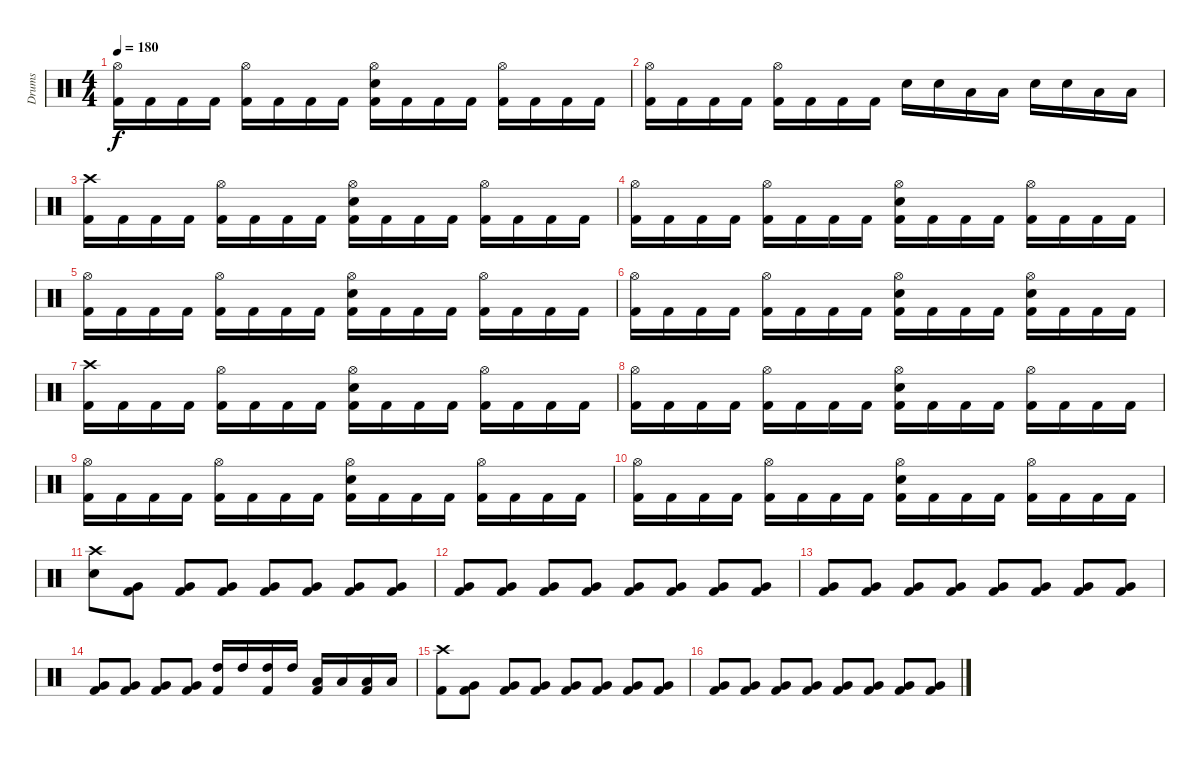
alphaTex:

\track ("Drums" "Drums") {instrument percussion}
\staff {score}
\articulation defaults
\ts (4 4)
\tempo 180
\clef neutral
\ks c
("Hi-Hat (open)" "Kick (hit) 2").16{dy f} "Kick (hit) 2".16 "Kick (hit) 2".16 "Kick (hit) 2".16 ("Hi-Hat (open)" "Kick (hit) 2").16 "Kick (hit) 2".16 "Kick (hit) 2".16 "Kick (hit) 2".16 ("Hi-Hat (open)" "Electric Snare (hit)" "Kick (hit) 2").16 "Kick (hit) 2".16 "Kick (hit) 2".16 "Kick (hit) 2".16 ("Hi-Hat (open)" "Kick (hit) 2").16 "Kick (hit) 2".16 "Kick (hit) 2".16 "Kick (hit) 2".16 |
("Hi-Hat (open)" "Kick (hit) 2").16 "Kick (hit) 2".16 "Kick (hit) 2".16 "Kick (hit) 2".16 ("Hi-Hat (open)" "Kick (hit) 2").16 "Kick (hit) 2".16 "Kick (hit) 2".16 "Kick (hit) 2".16 "Electric Snare (hit)".16 "Electric Snare (hit)".16 "Low Tom (hit)".16 "Low Tom (hit)".16 "Electric Snare (hit)".16 "Electric Snare (hit)".16 "Low Tom (hit)".16 "Low Tom (hit)".16 |
("Crash high (hit)" "Kick (hit) 2").16 "Kick (hit) 2".16 "Kick (hit) 2".16 "Kick (hit) 2".16 ("Hi-Hat (open)" "Kick (hit) 2").16 "Kick (hit) 2".16 "Kick (hit) 2".16 "Kick (hit) 2".16 ("Hi-Hat (open)" "Electric Snare (hit)" "Kick (hit) 2").16 "Kick (hit) 2".16 "Kick (hit) 2".16 "Kick (hit) 2".16 ("Hi-Hat (open)" "Kick (hit) 2").16 "Kick (hit) 2".16 "Kick (hit) 2".16 "Kick (hit) 2".16 |
("Hi-Hat (open)" "Kick (hit) 2").16 "Kick (hit) 2".16 "Kick (hit) 2".16 "Kick (hit) 2".16 ("Hi-Hat (open)" "Kick (hit) 2").16 "Kick (hit) 2".16 "Kick (hit) 2".16 "Kick (hit) 2".16 ("Hi-Hat (open)" "Electric Snare (hit)" "Kick (hit) 2").16 "Kick (hit) 2".16 "Kick (hit) 2".16 "Kick (hit) 2".16 ("Hi-Hat (open)" "Kick (hit) 2").16 "Kick (hit) 2".16 "Kick (hit) 2".16 "Kick (hit) 2".16 |
("Hi-Hat (open)" "Kick (hit) 2").16 "Kick (hit) 2".16 "Kick (hit) 2".16 "Kick (hit) 2".16 ("Hi-Hat (open)" "Kick (hit) 2").16 "Kick (hit) 2".16 "Kick (hit) 2".16 "Kick (hit) 2".16 ("Hi-Hat (open)" "Electric Snare (hit)" "Kick (hit) 2").16 "Kick (hit) 2".16 "Kick (hit) 2".16 "Kick (hit) 2".16 ("Hi-Hat (open)" "Kick (hit) 2").16 "Kick (hit) 2".16 "Kick (hit) 2".16 "Kick (hit) 2".16 |
("Hi-Hat (open)" "Kick (hit) 2").16 "Kick (hit) 2".16 "Kick (hit) 2".16 "Kick (hit) 2".16 ("Hi-Hat (open)" "Kick (hit) 2").16 "Kick (hit) 2".16 "Kick (hit) 2".16 "Kick (hit) 2".16 ("Hi-Hat (open)" "Electric Snare (hit)" "Kick (hit) 2").16 "Kick (hit) 2".16 "Kick (hit) 2".16 "Kick (hit) 2".16 ("Hi-Hat (open)" "Electric Snare (hit)" "Kick (hit) 2").16 "Kick (hit) 2".16 "Kick (hit) 2".16 "Kick (hit) 2".16 |
("Crash high (hit)" "Kick (hit) 2").16 "Kick (hit) 2".16 "Kick (hit) 2".16 "Kick (hit) 2".16 ("Hi-Hat (open)" "Kick (hit) 2").16 "Kick (hit) 2".16 "Kick (hit) 2".16 "Kick (hit) 2".16 ("Hi-Hat (open)" "Electric Snare (hit)" "Kick (hit) 2").16 "Kick (hit) 2".16 "Kick (hit) 2".16 "Kick (hit) 2".16 ("Hi-Hat (open)" "Kick (hit) 2").16 "Kick (hit) 2".16 "Kick (hit) 2".16 "Kick (hit) 2".16 |
("Hi-Hat (open)" "Kick (hit) 2").16 "Kick (hit) 2".16 "Kick (hit) 2".16 "Kick (hit) 2".16 ("Hi-Hat (open)" "Kick (hit) 2").16 "Kick (hit) 2".16 "Kick (hit) 2".16 "Kick (hit) 2".16 ("Hi-Hat (open)" "Electric Snare (hit)" "Kick (hit) 2").16 "Kick (hit) 2".16 "Kick (hit) 2".16 "Kick (hit) 2".16 ("Hi-Hat (open)" "Kick (hit) 2").16 "Kick (hit) 2".16 "Kick (hit) 2".16 "Kick (hit) 2".16 |
("Hi-Hat (open)" "Kick (hit) 2").16 "Kick (hit) 2".16 "Kick (hit) 2".16 "Kick (hit) 2".16 ("Hi-Hat (open)" "Kick (hit) 2").16 "Kick (hit) 2".16 "Kick (hit) 2".16 "Kick (hit) 2".16 ("Hi-Hat (open)" "Electric Snare (hit)" "Kick (hit) 2").16 "Kick (hit) 2".16 "Kick (hit) 2".16 "Kick (hit) 2".16 ("Hi-Hat (open)" "Kick (hit) 2").16 "Kick (hit) 2".16 "Kick (hit) 2".16 "Kick (hit) 2".16 |
("Hi-Hat (open)" "Kick (hit) 2").16 "Kick (hit) 2".16 "Kick (hit) 2".16 "Kick (hit) 2".16 ("Hi-Hat (open)" "Kick (hit) 2").16 "Kick (hit) 2".16 "Kick (hit) 2".16 "Kick (hit) 2".16 ("Hi-Hat (open)" "Electric Snare (hit)" "Kick (hit) 2").16 "Kick (hit) 2".16 "Kick (hit) 2".16 "Kick (hit) 2".16 ("Hi-Hat (open)" "Kick (hit) 2").16 "Kick (hit) 2".16 "Kick (hit) 2".16 "Kick (hit) 2".16 |
("Crash high (hit)" "Electric Snare (hit)").8 ("Very Low Tom (hit)" "Kick (hit) 2").8 ("Very Low Tom (hit)" "Kick (hit) 2").8 ("Very Low Tom (hit)" "Kick (hit) 2").8 ("Very Low Tom (hit)" "Kick (hit) 2").8 ("Very Low Tom (hit)" "Kick (hit) 2").8 ("Very Low Tom (hit)" "Kick (hit) 2").8 ("Very Low Tom (hit)" "Kick (hit) 2").8 |
("Very Low Tom (hit)" "Kick (hit) 2").8 ("Very Low Tom (hit)" "Kick (hit) 2").8 ("Very Low Tom (hit)" "Kick (hit) 2").8 ("Very Low Tom (hit)" "Kick (hit) 2").8 ("Very Low Tom (hit)" "Kick (hit) 2").8 ("Very Low Tom (hit)" "Kick (hit) 2").8 ("Very Low Tom (hit)" "Kick (hit) 2").8 ("Very Low Tom (hit)" "Kick (hit) 2").8 |
("Very Low Tom (hit)" "Kick (hit) 2").8 ("Very Low Tom (hit)" "Kick (hit) 2").8 ("Very Low Tom (hit)" "Kick (hit) 2").8 ("Very Low Tom (hit)" "Kick (hit) 2").8 ("Very Low Tom (hit)" "Kick (hit) 2").8 ("Very Low Tom (hit)" "Kick (hit) 2").8 ("Very Low Tom (hit)" "Kick (hit) 2").8 ("Very Low Tom (hit)" "Kick (hit) 2").8 |
("Very Low Tom (hit)" "Kick (hit) 2").8 ("Very Low Tom (hit)" "Kick (hit) 2").8 ("Very Low Tom (hit)" "Kick (hit) 2").8 ("Very Low Tom (hit)" "Kick (hit) 2").8 ("High Tom (hit)" "Kick (hit) 2").16 "High Tom (hit)".16 ("High Tom (hit)" "Kick (hit) 2").16 "High Tom (hit)".16 ("Low Tom (hit)" "Kick (hit) 2").16 "Low Tom (hit)".16 ("Low Tom (hit)" "Kick (hit) 2").16 "Low Tom (hit)".16 |
("Crash high (hit)" "Kick (hit) 2").8 ("Very Low Tom (hit)" "Kick (hit) 2").8 ("Very Low Tom (hit)" "Kick (hit) 2").8 ("Very Low Tom (hit)" "Kick (hit) 2").8 ("Very Low Tom (hit)" "Kick (hit) 2").8 ("Very Low Tom (hit)" "Kick (hit) 2").8 ("Very Low Tom (hit)" "Kick (hit) 2").8 ("Very Low Tom (hit)" "Kick (hit) 2").8 |
("Very Low Tom (hit)" "Kick (hit) 2").8 ("Very Low Tom (hit)" "Kick (hit) 2").8 ("Very Low Tom (hit)" "Kick (hit) 2").8 ("Very Low Tom (hit)" "Kick (hit) 2").8 ("Very Low Tom (hit)" "Kick (hit) 2").8 ("Very Low Tom (hit)" "Kick (hit) 2").8 ("Very Low Tom (hit)" "Kick (hit) 2").8 ("Very Low Tom (hit)" "Kick (hit) 2").8
